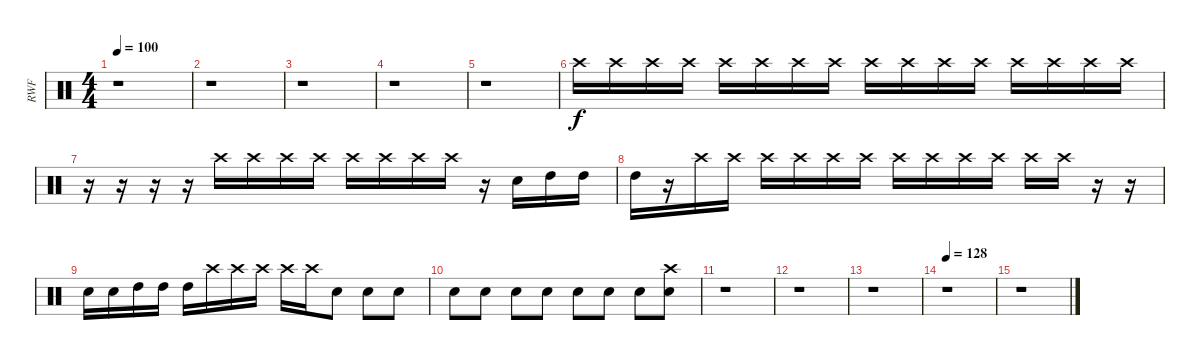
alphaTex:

\track ("RWF" "RWF") {instrument percussion}
\staff {score}
\articulation defaults
\ts (4 4)
\tempo 100
\clef neutral
\ks c
r.1{dy f} |
r.1 |
r.1 |
r.1 |
r.1 |
"Crash high (hit)".16 "Crash high (hit)".16 "Crash high (hit)".16 "Crash high (hit)".16 "Crash high (hit)".16 "Crash high (hit)".16 "Crash high (hit)".16 "Crash high (hit)".16 "Crash high (hit)".16 "Crash high (hit)".16 "Crash high (hit)".16 "Crash high (hit)".16 "Crash high (hit)".16 "Crash high (hit)".16 "Crash high (hit)".16 "Crash high (hit)".16 |
r.16 r.16 r.16 r.16 "Crash high (hit)".16 "Crash high (hit)".16 "Crash high (hit)".16 "Crash high (hit)".16 "Crash high (hit)".16 "Crash high (hit)".16 "Crash high (hit)".16 "Crash high (hit)".16 r.16 "Electric Snare (hit)".16 "High Tom (hit)".16 "High Tom (hit)".16 |
"High Tom (hit)".16 r.16 "Crash high (hit)".16 "Crash high (hit)".16 "Crash high (hit)".16 "Crash high (hit)".16 "Crash high (hit)".16 "Crash high (hit)".16 "Crash high (hit)".16 "Crash high (hit)".16 "Crash high (hit)".16 "Crash high (hit)".16 "Crash high (hit)".16 "Crash high (hit)".16 r.16 r.16 |
"Electric Snare (hit)".16 "Electric Snare (hit)".16 "High Tom (hit)".16 "High Tom (hit)".16 "High Tom (hit)".16 "Crash high (hit)".16 "Crash high (hit)".16 "Crash high (hit)".16 "Crash high (hit)".16 "Crash high (hit)".16 "Electric Snare (hit)".8 "Electric Snare (hit)".8 "Electric Snare (hit)".8 |
"Electric Snare (hit)".8 "Electric Snare (hit)".8 "Electric Snare (hit)".8 "Electric Snare (hit)".8 "Electric Snare (hit)".8 "Electric Snare (hit)".8 "Electric Snare (hit)".8 ("Electric Snare (hit)" "Crash high (hit)").8 |
r.1 |
r.1 |
r.1 |
\tempo 128
r.1 |
r.1
